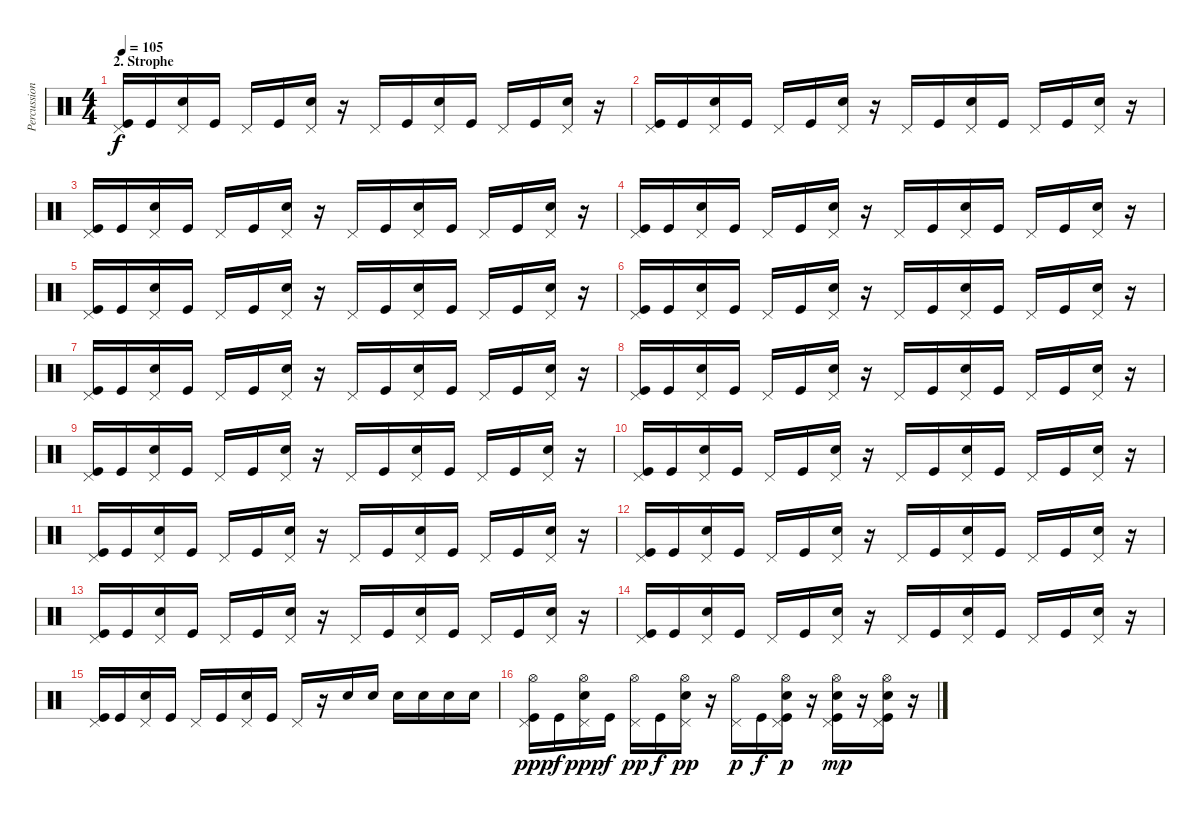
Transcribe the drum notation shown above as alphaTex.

\track ("Percussion" "Percussion") {instrument percussion}
\staff {score}
\articulation defaults
\ts (4 4)
\section ("" "2. Strophe")
\tempo 105
\clef neutral
\ks c
("Pedal Hi-Hat (hit)" "Kick (hit)").16{dy f} "Kick (hit)".16 ("Pedal Hi-Hat (hit)" "Snare (hit) 2").16 "Kick (hit)".16 "Pedal Hi-Hat (hit)".16 "Kick (hit)".16 ("Pedal Hi-Hat (hit)" "Snare (hit) 2").16 r.16 "Pedal Hi-Hat (hit)".16 "Kick (hit)".16 ("Pedal Hi-Hat (hit)" "Snare (hit) 2").16 "Kick (hit)".16 "Pedal Hi-Hat (hit)".16 "Kick (hit)".16 ("Pedal Hi-Hat (hit)" "Snare (hit) 2").16 r.16 |
("Pedal Hi-Hat (hit)" "Kick (hit)").16 "Kick (hit)".16 ("Pedal Hi-Hat (hit)" "Snare (hit) 2").16 "Kick (hit)".16 "Pedal Hi-Hat (hit)".16 "Kick (hit)".16 ("Pedal Hi-Hat (hit)" "Snare (hit) 2").16 r.16 "Pedal Hi-Hat (hit)".16 "Kick (hit)".16 ("Pedal Hi-Hat (hit)" "Snare (hit) 2").16 "Kick (hit)".16 "Pedal Hi-Hat (hit)".16 "Kick (hit)".16 ("Pedal Hi-Hat (hit)" "Snare (hit) 2").16 r.16 |
("Pedal Hi-Hat (hit)" "Kick (hit)").16 "Kick (hit)".16 ("Pedal Hi-Hat (hit)" "Snare (hit) 2").16 "Kick (hit)".16 "Pedal Hi-Hat (hit)".16 "Kick (hit)".16 ("Pedal Hi-Hat (hit)" "Snare (hit) 2").16 r.16 "Pedal Hi-Hat (hit)".16 "Kick (hit)".16 ("Pedal Hi-Hat (hit)" "Snare (hit) 2").16 "Kick (hit)".16 "Pedal Hi-Hat (hit)".16 "Kick (hit)".16 ("Pedal Hi-Hat (hit)" "Snare (hit) 2").16 r.16 |
("Pedal Hi-Hat (hit)" "Kick (hit)").16 "Kick (hit)".16 ("Pedal Hi-Hat (hit)" "Snare (hit) 2").16 "Kick (hit)".16 "Pedal Hi-Hat (hit)".16 "Kick (hit)".16 ("Pedal Hi-Hat (hit)" "Snare (hit) 2").16 r.16 "Pedal Hi-Hat (hit)".16 "Kick (hit)".16 ("Pedal Hi-Hat (hit)" "Snare (hit) 2").16 "Kick (hit)".16 "Pedal Hi-Hat (hit)".16 "Kick (hit)".16 ("Pedal Hi-Hat (hit)" "Snare (hit) 2").16 r.16 |
("Pedal Hi-Hat (hit)" "Kick (hit)").16 "Kick (hit)".16 ("Pedal Hi-Hat (hit)" "Snare (hit) 2").16 "Kick (hit)".16 "Pedal Hi-Hat (hit)".16 "Kick (hit)".16 ("Pedal Hi-Hat (hit)" "Snare (hit) 2").16 r.16 "Pedal Hi-Hat (hit)".16 "Kick (hit)".16 ("Pedal Hi-Hat (hit)" "Snare (hit) 2").16 "Kick (hit)".16 "Pedal Hi-Hat (hit)".16 "Kick (hit)".16 ("Pedal Hi-Hat (hit)" "Snare (hit) 2").16 r.16 |
("Pedal Hi-Hat (hit)" "Kick (hit)").16 "Kick (hit)".16 ("Pedal Hi-Hat (hit)" "Snare (hit) 2").16 "Kick (hit)".16 "Pedal Hi-Hat (hit)".16 "Kick (hit)".16 ("Pedal Hi-Hat (hit)" "Snare (hit) 2").16 r.16 "Pedal Hi-Hat (hit)".16 "Kick (hit)".16 ("Pedal Hi-Hat (hit)" "Snare (hit) 2").16 "Kick (hit)".16 "Pedal Hi-Hat (hit)".16 "Kick (hit)".16 ("Pedal Hi-Hat (hit)" "Snare (hit) 2").16 r.16 |
("Pedal Hi-Hat (hit)" "Kick (hit)").16 "Kick (hit)".16 ("Pedal Hi-Hat (hit)" "Snare (hit) 2").16 "Kick (hit)".16 "Pedal Hi-Hat (hit)".16 "Kick (hit)".16 ("Pedal Hi-Hat (hit)" "Snare (hit) 2").16 r.16 "Pedal Hi-Hat (hit)".16 "Kick (hit)".16 ("Pedal Hi-Hat (hit)" "Snare (hit) 2").16 "Kick (hit)".16 "Pedal Hi-Hat (hit)".16 "Kick (hit)".16 ("Pedal Hi-Hat (hit)" "Snare (hit) 2").16 r.16 |
("Pedal Hi-Hat (hit)" "Kick (hit)").16 "Kick (hit)".16 ("Pedal Hi-Hat (hit)" "Snare (hit) 2").16 "Kick (hit)".16 "Pedal Hi-Hat (hit)".16 "Kick (hit)".16 ("Pedal Hi-Hat (hit)" "Snare (hit) 2").16 r.16 "Pedal Hi-Hat (hit)".16 "Kick (hit)".16 ("Pedal Hi-Hat (hit)" "Snare (hit) 2").16 "Kick (hit)".16 "Pedal Hi-Hat (hit)".16 "Kick (hit)".16 ("Pedal Hi-Hat (hit)" "Snare (hit) 2").16 r.16 |
("Pedal Hi-Hat (hit)" "Kick (hit)").16 "Kick (hit)".16 ("Pedal Hi-Hat (hit)" "Snare (hit) 2").16 "Kick (hit)".16 "Pedal Hi-Hat (hit)".16 "Kick (hit)".16 ("Pedal Hi-Hat (hit)" "Snare (hit) 2").16 r.16 "Pedal Hi-Hat (hit)".16 "Kick (hit)".16 ("Pedal Hi-Hat (hit)" "Snare (hit) 2").16 "Kick (hit)".16 "Pedal Hi-Hat (hit)".16 "Kick (hit)".16 ("Pedal Hi-Hat (hit)" "Snare (hit) 2").16 r.16 |
("Pedal Hi-Hat (hit)" "Kick (hit)").16 "Kick (hit)".16 ("Pedal Hi-Hat (hit)" "Snare (hit) 2").16 "Kick (hit)".16 "Pedal Hi-Hat (hit)".16 "Kick (hit)".16 ("Pedal Hi-Hat (hit)" "Snare (hit) 2").16 r.16 "Pedal Hi-Hat (hit)".16 "Kick (hit)".16 ("Pedal Hi-Hat (hit)" "Snare (hit) 2").16 "Kick (hit)".16 "Pedal Hi-Hat (hit)".16 "Kick (hit)".16 ("Pedal Hi-Hat (hit)" "Snare (hit) 2").16 r.16 |
("Pedal Hi-Hat (hit)" "Kick (hit)").16 "Kick (hit)".16 ("Pedal Hi-Hat (hit)" "Snare (hit) 2").16 "Kick (hit)".16 "Pedal Hi-Hat (hit)".16 "Kick (hit)".16 ("Pedal Hi-Hat (hit)" "Snare (hit) 2").16 r.16 "Pedal Hi-Hat (hit)".16 "Kick (hit)".16 ("Pedal Hi-Hat (hit)" "Snare (hit) 2").16 "Kick (hit)".16 "Pedal Hi-Hat (hit)".16 "Kick (hit)".16 ("Pedal Hi-Hat (hit)" "Snare (hit) 2").16 r.16 |
("Pedal Hi-Hat (hit)" "Kick (hit)").16 "Kick (hit)".16 ("Pedal Hi-Hat (hit)" "Snare (hit) 2").16 "Kick (hit)".16 "Pedal Hi-Hat (hit)".16 "Kick (hit)".16 ("Pedal Hi-Hat (hit)" "Snare (hit) 2").16 r.16 "Pedal Hi-Hat (hit)".16 "Kick (hit)".16 ("Pedal Hi-Hat (hit)" "Snare (hit) 2").16 "Kick (hit)".16 "Pedal Hi-Hat (hit)".16 "Kick (hit)".16 ("Pedal Hi-Hat (hit)" "Snare (hit) 2").16 r.16 |
("Pedal Hi-Hat (hit)" "Kick (hit)").16 "Kick (hit)".16 ("Pedal Hi-Hat (hit)" "Snare (hit) 2").16 "Kick (hit)".16 "Pedal Hi-Hat (hit)".16 "Kick (hit)".16 ("Pedal Hi-Hat (hit)" "Snare (hit) 2").16 r.16 "Pedal Hi-Hat (hit)".16 "Kick (hit)".16 ("Pedal Hi-Hat (hit)" "Snare (hit) 2").16 "Kick (hit)".16 "Pedal Hi-Hat (hit)".16 "Kick (hit)".16 ("Pedal Hi-Hat (hit)" "Snare (hit) 2").16 r.16 |
("Pedal Hi-Hat (hit)" "Kick (hit)").16 "Kick (hit)".16 ("Pedal Hi-Hat (hit)" "Snare (hit) 2").16 "Kick (hit)".16 "Pedal Hi-Hat (hit)".16 "Kick (hit)".16 ("Pedal Hi-Hat (hit)" "Snare (hit) 2").16 r.16 "Pedal Hi-Hat (hit)".16 "Kick (hit)".16 ("Pedal Hi-Hat (hit)" "Snare (hit) 2").16 "Kick (hit)".16 "Pedal Hi-Hat (hit)".16 "Kick (hit)".16 ("Pedal Hi-Hat (hit)" "Snare (hit) 2").16 r.16 |
("Pedal Hi-Hat (hit)" "Kick (hit)").16 "Kick (hit)".16 ("Pedal Hi-Hat (hit)" "Snare (hit) 2").16 "Kick (hit)".16 "Pedal Hi-Hat (hit)".16 "Kick (hit)".16 ("Pedal Hi-Hat (hit)" "Snare (hit) 2").16 "Kick (hit)".16 "Pedal Hi-Hat (hit)".16 r.16 "Snare (hit) 2".16 "Snare (hit) 2".16 "Snare (hit) 2".16 "Snare (hit) 2".16 "Snare (hit) 2".16 "Snare (hit) 2".16 |
("Pedal Hi-Hat (hit)" "Kick (hit)" "Hi-Hat (open)").16{dy ppp} "Kick (hit)".16{dy f} ("Pedal Hi-Hat (hit)" "Snare (hit) 2" "Hi-Hat (open)").16{dy ppp} "Kick (hit)".16{dy f} ("Pedal Hi-Hat (hit)" "Hi-Hat (open)").16{dy pp} "Kick (hit)".16{dy f} ("Pedal Hi-Hat (hit)" "Snare (hit) 2" "Hi-Hat (open)").16{dy pp} r.16 ("Pedal Hi-Hat (hit)" "Hi-Hat (open)").16{dy p} "Kick (hit)".16{dy f} ("Pedal Hi-Hat (hit)" "Kick (hit)" "Snare (hit) 2" "Hi-Hat (open)").16{dy p} r.16 ("Pedal Hi-Hat (hit)" "Kick (hit)" "Snare (hit) 2" "Hi-Hat (open)").16{dy mp} r.16 ("Pedal Hi-Hat (hit)" "Kick (hit)" "Snare (hit) 2" "Hi-Hat (open)").16 r.16
